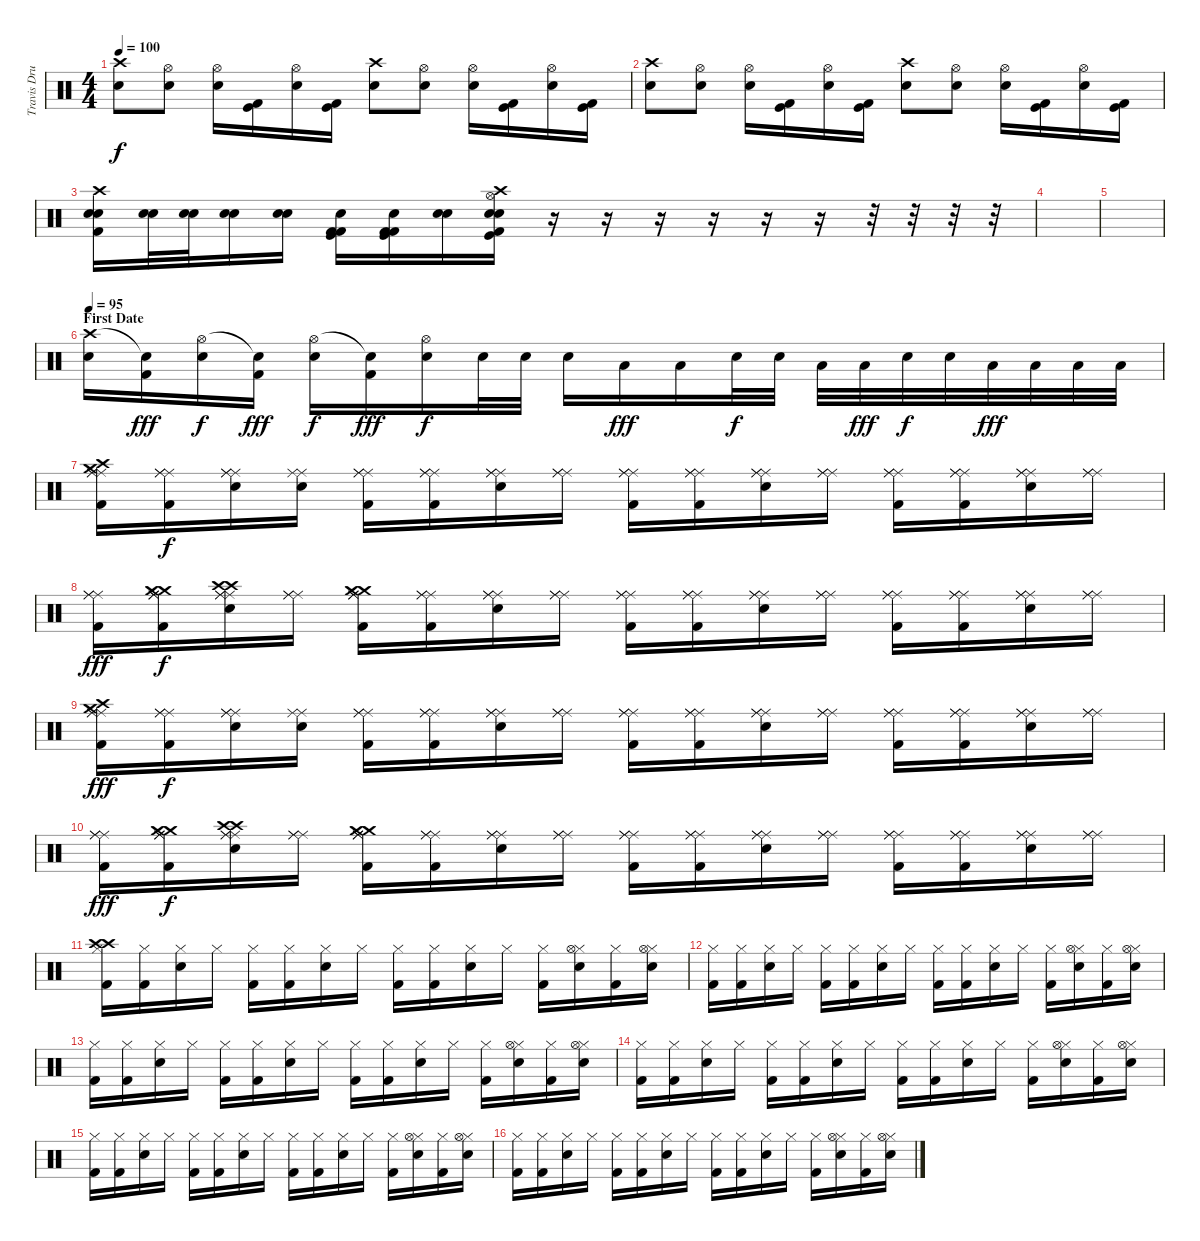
\track ("Travis Drums" "Travis Dru") {instrument percussion}
\staff {score}
\articulation defaults
\ts (4 4)
\tempo 100
\clef neutral
\ks c
("Crash high (hit)" "Electric Snare (hit)").8{dy f} ("Hi-Hat (open)" "Electric Snare (hit)").8 ("Hi-Hat (open)" "Electric Snare (hit)").16 ("Kick (hit)" "Kick (hit) 2").16 ("Hi-Hat (open)" "Electric Snare (hit)").16 ("Kick (hit)" "Kick (hit) 2").16 ("Crash high (hit)" "Electric Snare (hit)").8 ("Hi-Hat (open)" "Electric Snare (hit)").8 ("Hi-Hat (open)" "Electric Snare (hit)").16 ("Kick (hit)" "Kick (hit) 2").16 ("Hi-Hat (open)" "Electric Snare (hit)").16 ("Kick (hit)" "Kick (hit) 2").16 |
("Crash high (hit)" "Electric Snare (hit)").8 ("Hi-Hat (open)" "Electric Snare (hit)").8 ("Hi-Hat (open)" "Electric Snare (hit)").16 ("Kick (hit)" "Kick (hit) 2").16 ("Hi-Hat (open)" "Electric Snare (hit)").16 ("Kick (hit)" "Kick (hit) 2").16 ("Crash high (hit)" "Electric Snare (hit)").8 ("Hi-Hat (open)" "Electric Snare (hit)").8 ("Hi-Hat (open)" "Electric Snare (hit)").16 ("Kick (hit)" "Kick (hit) 2").16 ("Hi-Hat (open)" "Electric Snare (hit)").16 ("Kick (hit)" "Kick (hit) 2").16 |
("Crash high (hit)" "Snare (hit) 2" "Electric Snare (hit)" "Kick (hit) 2").16 ("Snare (hit) 2" "Electric Snare (hit)").32 ("Snare (hit) 2" "Electric Snare (hit)").32 ("Snare (hit) 2" "Electric Snare (hit)").16 ("Snare (hit) 2" "Electric Snare (hit)").16 ("Snare (hit) 2" "Kick (hit) 2" "Kick (hit)" "Kick (hit) 2").16 ("Snare (hit) 2" "Kick (hit) 2" "Kick (hit)" "Kick (hit) 2").16 ("Snare (hit) 2" "Electric Snare (hit)").16 ("Crash high (hit)" "Hi-Hat (open)" "Snare (hit) 2" "Electric Snare (hit)" "Kick (hit)" "Kick (hit) 2").16 r.16 r.16 r.16 r.16 r.16 r.16 r.32 r.32 r.32 r.32 |
|
|
\section ("" "First Date")
\tempo 95
("Crash high (hit)" "Snare (hit) 2").16 ("Snare (hit)"{t} "Kick (hit) 2").16{dy fff} ("Hi-Hat (open)" "Snare (hit) 2").16{dy f} ("Snare (hit)"{t} "Kick (hit) 2").16{dy fff} ("Hi-Hat (open)" "Snare (hit) 2").16{dy f} ("Snare (hit)"{t} "Kick (hit) 2").16{dy fff} ("Hi-Hat (open)" "Snare (hit) 2").16{dy f} "Snare (hit) 2".32 "Snare (hit) 2".32 "Snare (hit) 2".16 "Low Tom (hit)".16{dy fff} "Low Floor Tom (hit)".16 "Snare (hit) 2".32{dy f} "Snare (hit) 2".32 "Low Tom (hit)".32 "Low Tom (hit)".32{dy fff} "Snare (hit) 2".32{dy f} "Snare (hit) 2".32 "Low Floor Tom (hit)".32{dy fff} "Low Floor Tom (hit)".32 "Low Floor Tom (hit)".32 "Low Floor Tom (hit)".32 |
("Ride (middle)" "Kick (hit) 2" "Crash high (hit)" "Crash medium (hit)" "Ride (middle)" "Ride (middle)").16 ("Ride (middle)" "Kick (hit) 2" "Ride (middle)" "Ride (middle)").16{dy f} ("Ride (middle)" "Snare (hit) 2" "Ride (middle)" "Ride (middle)").16 ("Ride (middle)" "Snare (hit)" "Ride (middle)").16 ("Ride (middle)" "Kick (hit) 2" "Ride (middle)" "Ride (middle)").16 ("Ride (middle)" "Kick (hit) 2" "Ride (middle)" "Ride (middle)").16 ("Ride (middle)" "Snare (hit) 2" "Ride (middle)" "Ride (middle)").16 ("Ride (middle)" "Ride (middle)" "Ride (middle)").16 ("Ride (middle)" "Kick (hit) 2" "Ride (middle)" "Ride (middle)").16 ("Ride (middle)" "Kick (hit) 2" "Ride (middle)" "Ride (middle)").16 ("Ride (middle)" "Snare (hit) 2" "Ride (middle)" "Ride (middle)").16 ("Ride (middle)" "Ride (middle)" "Ride (middle)").16 ("Ride (middle)" "Kick (hit) 2" "Ride (middle)" "Ride (middle)").16 ("Ride (middle)" "Kick (hit) 2" "Ride (middle)" "Ride (middle)").16 ("Ride (middle)" "Snare (hit) 2" "Ride (middle)" "Ride (middle)").16 ("Ride (middle)" "Ride (middle)" "Ride (middle)").16 |
("Ride (middle)" "Kick (hit) 2" "Ride (middle)" "Ride (middle)").16{dy fff} ("Ride (middle)" "Kick (hit) 2" "Crash medium (hit)" "Crash medium (hit)" "Ride (middle)" "Ride (middle)").16{dy f} ("Ride (middle)" "Snare (hit) 2" "Crash high (hit)" "Crash high (hit)" "Ride (middle)" "Ride (middle)").16 ("Ride (middle)" "Ride (middle)" "Ride (middle)").16 ("Ride (middle)" "Kick (hit) 2" "Crash medium (hit)" "Crash medium (hit)" "Ride (middle)" "Ride (middle)").16 ("Ride (middle)" "Kick (hit) 2" "Ride (middle)" "Ride (middle)").16 ("Ride (middle)" "Snare (hit) 2" "Ride (middle)" "Ride (middle)").16 ("Ride (middle)" "Ride (middle)" "Ride (middle)").16 ("Ride (middle)" "Kick (hit) 2" "Ride (middle)" "Ride (middle)").16 ("Ride (middle)" "Kick (hit) 2" "Ride (middle)" "Ride (middle)").16 ("Ride (middle)" "Snare (hit) 2" "Ride (middle)" "Ride (middle)").16 ("Ride (middle)" "Ride (middle)" "Ride (middle)").16 ("Ride (middle)" "Kick (hit) 2" "Ride (middle)" "Ride (middle)").16 ("Ride (middle)" "Kick (hit) 2" "Ride (middle)" "Ride (middle)").16 ("Ride (middle)" "Snare (hit) 2" "Ride (middle)" "Ride (middle)").16 ("Ride (middle)" "Ride (middle)" "Ride (middle)").16 |
("Ride (middle)" "Kick (hit) 2" "Crash high (hit)" "Crash medium (hit)" "Ride (middle)" "Ride (middle)").16{dy fff} ("Ride (middle)" "Kick (hit) 2" "Ride (middle)" "Ride (middle)").16{dy f} ("Ride (middle)" "Snare (hit) 2" "Ride (middle)" "Ride (middle)").16 ("Ride (middle)" "Snare (hit)" "Ride (middle)").16 ("Ride (middle)" "Kick (hit) 2" "Ride (middle)" "Ride (middle)").16 ("Ride (middle)" "Kick (hit) 2" "Ride (middle)" "Ride (middle)").16 ("Ride (middle)" "Snare (hit) 2" "Ride (middle)" "Ride (middle)").16 ("Ride (middle)" "Ride (middle)" "Ride (middle)").16 ("Ride (middle)" "Kick (hit) 2" "Ride (middle)" "Ride (middle)").16 ("Ride (middle)" "Kick (hit) 2" "Ride (middle)" "Ride (middle)").16 ("Ride (middle)" "Snare (hit) 2" "Ride (middle)" "Ride (middle)").16 ("Ride (middle)" "Ride (middle)" "Ride (middle)").16 ("Ride (middle)" "Kick (hit) 2" "Ride (middle)" "Ride (middle)").16 ("Ride (middle)" "Kick (hit) 2" "Ride (middle)" "Ride (middle)").16 ("Ride (middle)" "Snare (hit) 2" "Ride (middle)" "Ride (middle)").16 ("Ride (middle)" "Ride (middle)" "Ride (middle)").16 |
("Ride (middle)" "Kick (hit) 2" "Ride (middle)" "Ride (middle)").16{dy fff} ("Ride (middle)" "Kick (hit) 2" "Crash medium (hit)" "Crash medium (hit)" "Ride (middle)" "Ride (middle)").16{dy f} ("Ride (middle)" "Snare (hit) 2" "Crash high (hit)" "Crash high (hit)" "Ride (middle)" "Ride (middle)").16 ("Ride (middle)" "Ride (middle)" "Ride (middle)").16 ("Ride (middle)" "Kick (hit) 2" "Crash medium (hit)" "Crash medium (hit)" "Ride (middle)" "Ride (middle)").16 ("Ride (middle)" "Kick (hit) 2" "Ride (middle)" "Ride (middle)").16 ("Ride (middle)" "Snare (hit) 2" "Ride (middle)" "Ride (middle)").16 ("Ride (middle)" "Ride (middle)" "Ride (middle)").16 ("Ride (middle)" "Kick (hit) 2" "Ride (middle)" "Ride (middle)").16 ("Ride (middle)" "Kick (hit) 2" "Ride (middle)" "Ride (middle)").16 ("Ride (middle)" "Snare (hit) 2" "Ride (middle)" "Ride (middle)").16 ("Ride (middle)" "Ride (middle)" "Ride (middle)").16 ("Ride (middle)" "Kick (hit) 2" "Ride (middle)" "Ride (middle)").16 ("Ride (middle)" "Kick (hit) 2" "Ride (middle)" "Ride (middle)").16 ("Ride (middle)" "Snare (hit) 2" "Ride (middle)" "Ride (middle)").16 ("Ride (middle)" "Ride (middle)" "Ride (middle)").16 |
("Hi-Hat (closed)" "Kick (hit) 2" "Crash high (hit)" "Crash high (hit)").16 ("Hi-Hat (closed)" "Kick (hit) 2").16 ("Hi-Hat (closed)" "Snare (hit) 2").16 "Hi-Hat (closed)".16 ("Hi-Hat (closed)" "Kick (hit) 2").16 ("Hi-Hat (closed)" "Kick (hit) 2").16 ("Hi-Hat (closed)" "Snare (hit) 2").16 "Hi-Hat (closed)".16 ("Hi-Hat (closed)" "Kick (hit) 2").16 ("Hi-Hat (closed)" "Kick (hit) 2").16 ("Hi-Hat (closed)" "Snare (hit) 2").16 "Hi-Hat (closed)".16 ("Hi-Hat (closed)" "Kick (hit) 2").16 ("Hi-Hat (closed)" "Hi-Hat (open)" "Snare (hit) 2").16 ("Hi-Hat (closed)" "Kick (hit) 2").16 ("Hi-Hat (closed)" "Hi-Hat (open)" "Snare (hit) 2").16 |
("Hi-Hat (closed)" "Kick (hit) 2").16 ("Hi-Hat (closed)" "Kick (hit) 2").16 ("Hi-Hat (closed)" "Snare (hit) 2").16 "Hi-Hat (closed)".16 ("Hi-Hat (closed)" "Kick (hit) 2").16 ("Hi-Hat (closed)" "Kick (hit) 2").16 ("Hi-Hat (closed)" "Snare (hit) 2").16 "Hi-Hat (closed)".16 ("Hi-Hat (closed)" "Kick (hit) 2").16 ("Hi-Hat (closed)" "Kick (hit) 2").16 ("Hi-Hat (closed)" "Snare (hit) 2").16 "Hi-Hat (closed)".16 ("Hi-Hat (closed)" "Kick (hit) 2").16 ("Hi-Hat (closed)" "Hi-Hat (open)" "Snare (hit) 2").16 ("Hi-Hat (closed)" "Kick (hit) 2").16 ("Hi-Hat (closed)" "Hi-Hat (open)" "Snare (hit) 2").16 |
("Hi-Hat (closed)" "Kick (hit) 2").16 ("Hi-Hat (closed)" "Kick (hit) 2").16 ("Hi-Hat (closed)" "Snare (hit) 2").16 "Hi-Hat (closed)".16 ("Hi-Hat (closed)" "Kick (hit) 2").16 ("Hi-Hat (closed)" "Kick (hit) 2").16 ("Hi-Hat (closed)" "Snare (hit) 2").16 "Hi-Hat (closed)".16 ("Hi-Hat (closed)" "Kick (hit) 2").16 ("Hi-Hat (closed)" "Kick (hit) 2").16 ("Hi-Hat (closed)" "Snare (hit) 2").16 "Hi-Hat (closed)".16 ("Hi-Hat (closed)" "Kick (hit) 2").16 ("Hi-Hat (closed)" "Hi-Hat (open)" "Snare (hit) 2").16 ("Hi-Hat (closed)" "Kick (hit) 2").16 ("Hi-Hat (closed)" "Hi-Hat (open)" "Snare (hit) 2").16 |
("Hi-Hat (closed)" "Kick (hit) 2").16 ("Hi-Hat (closed)" "Kick (hit) 2").16 ("Hi-Hat (closed)" "Snare (hit) 2").16 "Hi-Hat (closed)".16 ("Hi-Hat (closed)" "Kick (hit) 2").16 ("Hi-Hat (closed)" "Kick (hit) 2").16 ("Hi-Hat (closed)" "Snare (hit) 2").16 "Hi-Hat (closed)".16 ("Hi-Hat (closed)" "Kick (hit) 2").16 ("Hi-Hat (closed)" "Kick (hit) 2").16 ("Hi-Hat (closed)" "Snare (hit) 2").16 "Hi-Hat (closed)".16 ("Hi-Hat (closed)" "Kick (hit) 2").16 ("Hi-Hat (closed)" "Hi-Hat (open)" "Snare (hit) 2").16 ("Hi-Hat (closed)" "Kick (hit) 2").16 ("Hi-Hat (closed)" "Hi-Hat (open)" "Snare (hit) 2").16 |
("Hi-Hat (closed)" "Kick (hit) 2").16 ("Hi-Hat (closed)" "Kick (hit) 2").16 ("Hi-Hat (closed)" "Snare (hit) 2").16 "Hi-Hat (closed)".16 ("Hi-Hat (closed)" "Kick (hit) 2").16 ("Hi-Hat (closed)" "Kick (hit) 2").16 ("Hi-Hat (closed)" "Snare (hit) 2").16 "Hi-Hat (closed)".16 ("Hi-Hat (closed)" "Kick (hit) 2").16 ("Hi-Hat (closed)" "Kick (hit) 2").16 ("Hi-Hat (closed)" "Snare (hit) 2").16 "Hi-Hat (closed)".16 ("Hi-Hat (closed)" "Kick (hit) 2").16 ("Hi-Hat (closed)" "Hi-Hat (open)" "Snare (hit) 2").16 ("Hi-Hat (closed)" "Kick (hit) 2").16 ("Hi-Hat (closed)" "Hi-Hat (open)" "Snare (hit) 2").16 |
("Hi-Hat (closed)" "Kick (hit) 2").16 ("Hi-Hat (closed)" "Kick (hit) 2").16 ("Hi-Hat (closed)" "Snare (hit) 2").16 "Hi-Hat (closed)".16 ("Hi-Hat (closed)" "Kick (hit) 2").16 ("Hi-Hat (closed)" "Kick (hit) 2").16 ("Hi-Hat (closed)" "Snare (hit) 2").16 "Hi-Hat (closed)".16 ("Hi-Hat (closed)" "Kick (hit) 2").16 ("Hi-Hat (closed)" "Kick (hit) 2").16 ("Hi-Hat (closed)" "Snare (hit) 2").16 "Hi-Hat (closed)".16 ("Hi-Hat (closed)" "Kick (hit) 2").16 ("Hi-Hat (closed)" "Hi-Hat (open)" "Snare (hit) 2").16 ("Hi-Hat (closed)" "Kick (hit) 2").16 ("Hi-Hat (closed)" "Hi-Hat (open)" "Snare (hit) 2").16
